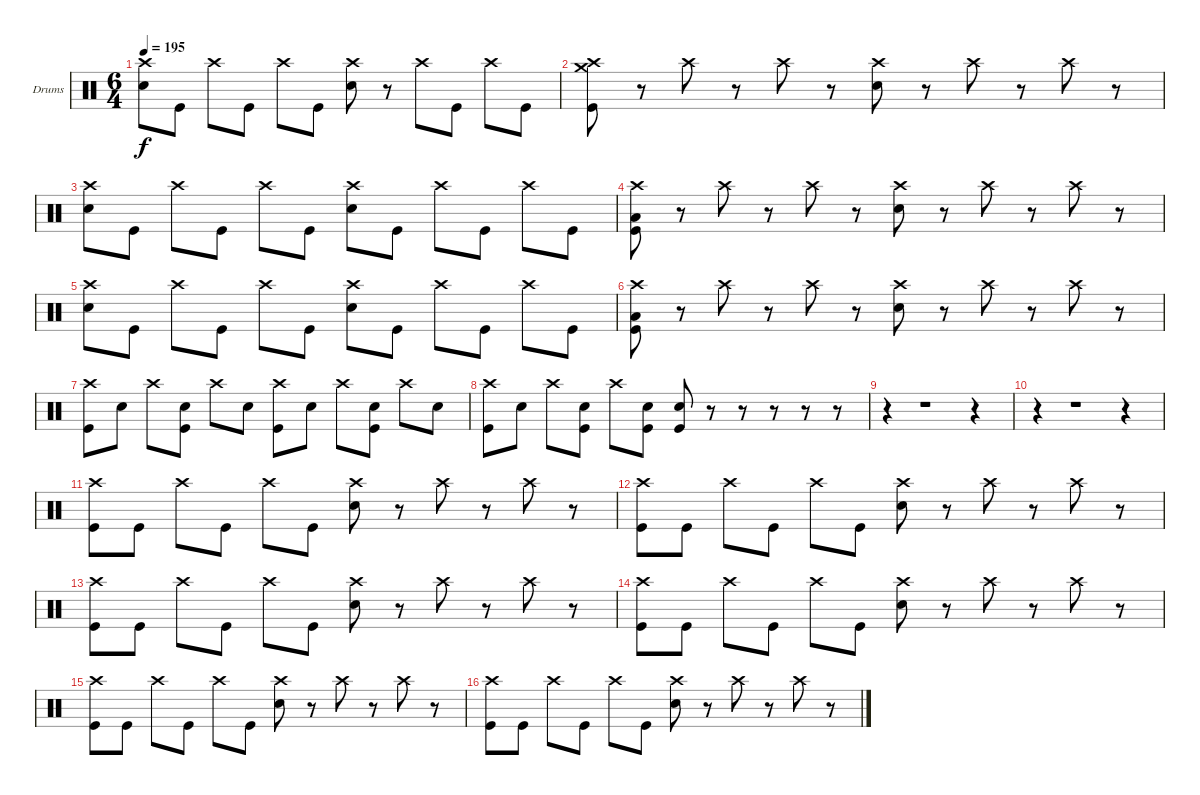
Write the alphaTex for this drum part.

\bracketExtendMode groupsimilarinstruments
\firstSystemTrackNameOrientation horizontal
\otherSystemsTrackNameOrientation horizontal
\track ("Drumkit" "Drums") {instrument percussion}
\staff {score}
\articulation defaults
\ts (6 4)
\tempo 195
\clef neutral
\ks c
("Crash high (hit)" "Snare (hit) 2").8{dy f} "Kick (hit)".8 "Crash high (hit)".8 "Kick (hit)".8 "Crash high (hit)".8 "Kick (hit)".8 ("Crash high (hit)" "Snare (hit) 2").8 r.8 "Crash high (hit)".8 "Kick (hit)".8 "Crash high (hit)".8 "Kick (hit)".8 |
("Crash high (hit)" "Crash medium (hit)" "Kick (hit)").8 r.8 "Crash high (hit)".8 r.8 "Crash high (hit)".8 r.8 ("Crash high (hit)" "Snare (hit) 2").8 r.8 "Crash high (hit)".8 r.8 "Crash high (hit)".8 r.8 |
("Crash high (hit)" "Snare (hit) 2").8 "Kick (hit)".8 "Crash high (hit)".8 "Kick (hit)".8 "Crash high (hit)".8 "Kick (hit)".8 ("Crash high (hit)" "Snare (hit) 2").8 "Kick (hit)".8 "Crash high (hit)".8 "Kick (hit)".8 "Crash high (hit)".8 "Kick (hit)".8 |
("Crash high (hit)" "Low Tom (hit)" "Kick (hit)").8 r.8 "Crash high (hit)".8 r.8 "Crash high (hit)".8 r.8 ("Crash high (hit)" "Snare (hit) 2").8 r.8 "Crash high (hit)".8 r.8 "Crash high (hit)".8 r.8 |
("Crash high (hit)" "Snare (hit) 2").8 "Kick (hit)".8 "Crash high (hit)".8 "Kick (hit)".8 "Crash high (hit)".8 "Kick (hit)".8 ("Crash high (hit)" "Snare (hit) 2").8 "Kick (hit)".8 "Crash high (hit)".8 "Kick (hit)".8 "Crash high (hit)".8 "Kick (hit)".8 |
("Crash high (hit)" "Low Tom (hit)" "Kick (hit)").8 r.8 "Crash high (hit)".8 r.8 "Crash high (hit)".8 r.8 ("Crash high (hit)" "Snare (hit) 2").8 r.8 "Crash high (hit)".8 r.8 "Crash high (hit)".8 r.8 |
("Crash high (hit)" "Kick (hit)").8 "Snare (hit) 2".8 "Crash high (hit)".8 ("Snare (hit) 2" "Kick (hit)").8 "Crash high (hit)".8 "Snare (hit) 2".8 ("Crash high (hit)" "Kick (hit)").8 "Snare (hit) 2".8 "Crash high (hit)".8 ("Snare (hit) 2" "Kick (hit)").8 "Crash high (hit)".8 "Snare (hit) 2".8 |
("Crash high (hit)" "Kick (hit)").8 "Snare (hit) 2".8 "Crash high (hit)".8 ("Snare (hit) 2" "Kick (hit)").8 "Crash high (hit)".8 ("Snare (hit) 2" "Kick (hit)").8 ("Snare (hit) 2" "Kick (hit)").8 r.8 r.8 r.8 r.8 r.8 |
r.4 r.1 r.4 |
r.4 r.1 r.4 |
("Crash high (hit)" "Kick (hit)").8 "Kick (hit)".8 "Crash high (hit)".8 "Kick (hit)".8 "Crash high (hit)".8 "Kick (hit)".8 ("Crash high (hit)" "Snare (hit) 2").8 r.8 "Crash high (hit)".8 r.8 "Crash high (hit)".8 r.8 |
("Crash high (hit)" "Kick (hit)").8 "Kick (hit)".8 "Crash high (hit)".8 "Kick (hit)".8 "Crash high (hit)".8 "Kick (hit)".8 ("Crash high (hit)" "Snare (hit) 2").8 r.8 "Crash high (hit)".8 r.8 "Crash high (hit)".8 r.8 |
("Crash high (hit)" "Kick (hit)").8 "Kick (hit)".8 "Crash high (hit)".8 "Kick (hit)".8 "Crash high (hit)".8 "Kick (hit)".8 ("Crash high (hit)" "Snare (hit) 2").8 r.8 "Crash high (hit)".8 r.8 "Crash high (hit)".8 r.8 |
("Crash high (hit)" "Kick (hit)").8 "Kick (hit)".8 "Crash high (hit)".8 "Kick (hit)".8 "Crash high (hit)".8 "Kick (hit)".8 ("Crash high (hit)" "Snare (hit) 2").8 r.8 "Crash high (hit)".8 r.8 "Crash high (hit)".8 r.8 |
("Crash high (hit)" "Kick (hit)").8 "Kick (hit)".8 "Crash high (hit)".8 "Kick (hit)".8 "Crash high (hit)".8 "Kick (hit)".8 ("Crash high (hit)" "Snare (hit) 2").8 r.8 "Crash high (hit)".8 r.8 "Crash high (hit)".8 r.8 |
("Crash high (hit)" "Kick (hit)").8 "Kick (hit)".8 "Crash high (hit)".8 "Kick (hit)".8 "Crash high (hit)".8 "Kick (hit)".8 ("Crash high (hit)" "Snare (hit) 2").8 r.8 "Crash high (hit)".8 r.8 "Crash high (hit)".8 r.8
